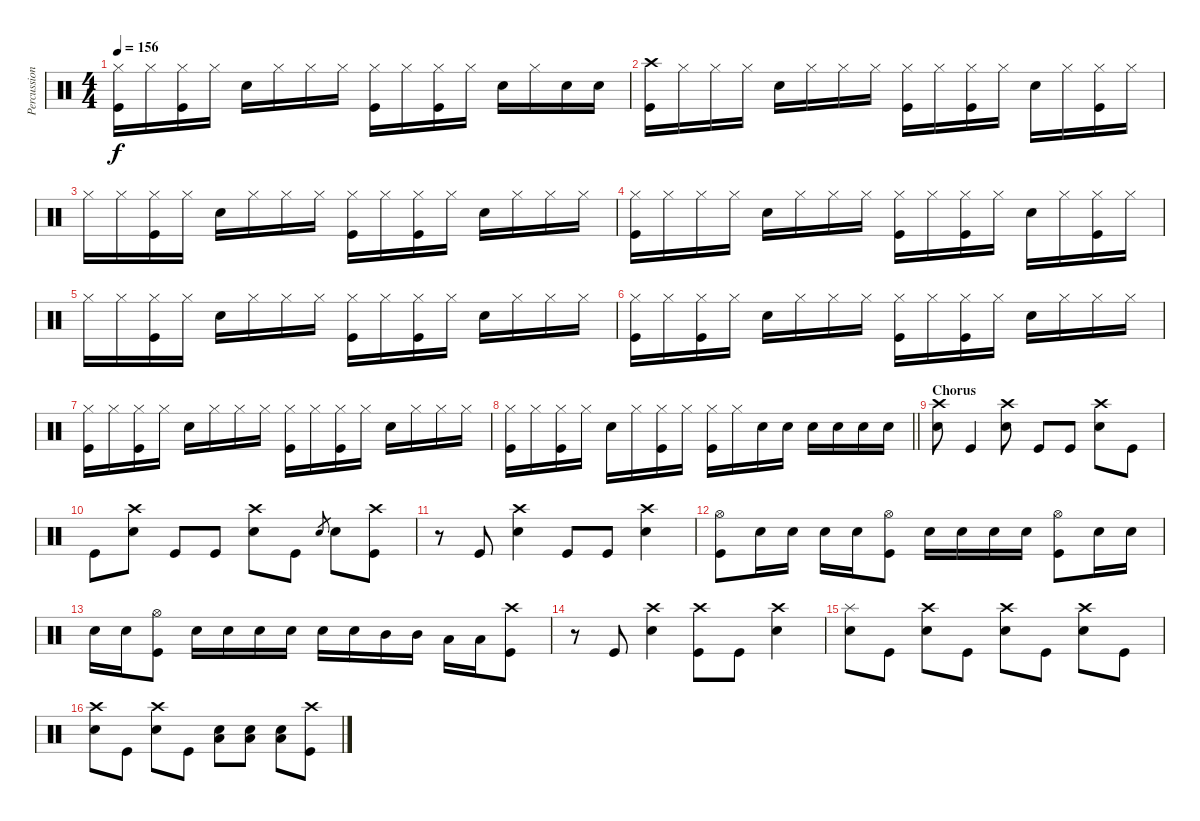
\track ("Percussion" "Percussion") {instrument percussion}
\staff {score}
\articulation defaults
\ts (4 4)
\tempo 156
\clef neutral
\ks c
("Hi-Hat (closed)" "Kick (hit)").16{dy f} "Hi-Hat (closed)".16 ("Hi-Hat (closed)" "Kick (hit)").16 "Hi-Hat (closed)".16 "Snare (hit) 2".16 "Hi-Hat (closed)".16 "Hi-Hat (closed)".16 "Hi-Hat (closed)".16 ("Hi-Hat (closed)" "Kick (hit)").16 "Hi-Hat (closed)".16 ("Hi-Hat (closed)" "Kick (hit)").16 "Hi-Hat (closed)".16 "Snare (hit) 2".16 "Hi-Hat (closed)".16 "Snare (hit) 2".16 "Snare (hit) 2".16 |
("Crash high (hit)" "Kick (hit)").16 "Hi-Hat (closed)".16 "Hi-Hat (closed)".16 "Hi-Hat (closed)".16 "Snare (hit) 2".16 "Hi-Hat (closed)".16 "Hi-Hat (closed)".16 "Hi-Hat (closed)".16 ("Hi-Hat (closed)" "Kick (hit)").16 "Hi-Hat (closed)".16 ("Hi-Hat (closed)" "Kick (hit)").16 "Hi-Hat (closed)".16 "Snare (hit) 2".16 "Hi-Hat (closed)".16 ("Hi-Hat (closed)" "Kick (hit)").16 "Hi-Hat (closed)".16 |
"Hi-Hat (closed)".16 "Hi-Hat (closed)".16 ("Hi-Hat (closed)" "Kick (hit)").16 "Hi-Hat (closed)".16 "Snare (hit) 2".16 "Hi-Hat (closed)".16 "Hi-Hat (closed)".16 "Hi-Hat (closed)".16 ("Hi-Hat (closed)" "Kick (hit)").16 "Hi-Hat (closed)".16 ("Hi-Hat (closed)" "Kick (hit)").16 "Hi-Hat (closed)".16 "Snare (hit) 2".16 "Hi-Hat (closed)".16 "Hi-Hat (closed)".16 "Hi-Hat (closed)".16 |
("Hi-Hat (closed)" "Kick (hit)").16 "Hi-Hat (closed)".16 "Hi-Hat (closed)".16 "Hi-Hat (closed)".16 "Snare (hit) 2".16 "Hi-Hat (closed)".16 "Hi-Hat (closed)".16 "Hi-Hat (closed)".16 ("Hi-Hat (closed)" "Kick (hit)").16 "Hi-Hat (closed)".16 ("Hi-Hat (closed)" "Kick (hit)").16 "Hi-Hat (closed)".16 "Snare (hit) 2".16 "Hi-Hat (closed)".16 ("Hi-Hat (closed)" "Kick (hit)").16 "Hi-Hat (closed)".16 |
"Hi-Hat (closed)".16 "Hi-Hat (closed)".16 ("Hi-Hat (closed)" "Kick (hit)").16 "Hi-Hat (closed)".16 "Snare (hit) 2".16 "Hi-Hat (closed)".16 "Hi-Hat (closed)".16 "Hi-Hat (closed)".16 ("Hi-Hat (closed)" "Kick (hit)").16 "Hi-Hat (closed)".16 ("Hi-Hat (closed)" "Kick (hit)").16 "Hi-Hat (closed)".16 "Snare (hit) 2".16 "Hi-Hat (closed)".16 "Hi-Hat (closed)".16 "Hi-Hat (closed)".16 |
("Hi-Hat (closed)" "Kick (hit)").16{volume 8} "Hi-Hat (closed)".16{volume 16} ("Hi-Hat (closed)" "Kick (hit)").16 "Hi-Hat (closed)".16 "Snare (hit) 2".16 "Hi-Hat (closed)".16 "Hi-Hat (closed)".16 "Hi-Hat (closed)".16 ("Hi-Hat (closed)" "Kick (hit)").16 "Hi-Hat (closed)".16 ("Hi-Hat (closed)" "Kick (hit)").16 "Hi-Hat (closed)".16 "Snare (hit) 2".16 "Hi-Hat (closed)".16 "Hi-Hat (closed)".16 "Hi-Hat (closed)".16 |
("Hi-Hat (closed)" "Kick (hit)").16 "Hi-Hat (closed)".16 ("Hi-Hat (closed)" "Kick (hit)").16 "Hi-Hat (closed)".16 "Snare (hit) 2".16 "Hi-Hat (closed)".16 "Hi-Hat (closed)".16 "Hi-Hat (closed)".16 ("Hi-Hat (closed)" "Kick (hit)").16 "Hi-Hat (closed)".16 ("Hi-Hat (closed)" "Kick (hit)").16 "Hi-Hat (closed)".16 "Snare (hit) 2".16 "Hi-Hat (closed)".16 "Hi-Hat (closed)".16 "Hi-Hat (closed)".16 |
\barLineRight lightlight
("Hi-Hat (closed)" "Kick (hit)").16 "Hi-Hat (closed)".16 ("Hi-Hat (closed)" "Kick (hit)").16 "Hi-Hat (closed)".16 "Snare (hit) 2".16 "Hi-Hat (closed)".16 ("Hi-Hat (closed)" "Kick (hit)").16 "Hi-Hat (closed)".16 ("Hi-Hat (closed)" "Kick (hit)").16 "Hi-Hat (closed)".16 "Snare (hit) 2".16 "Snare (hit) 2".16 "Snare (hit) 2".16 "Snare (hit) 2".16 "Snare (hit) 2".16 "Snare (hit) 2".16 |
\section ("" "Chorus")
("Crash high (hit)" "Snare (hit) 2").8{volume 16} "Kick (hit)".4 ("Crash high (hit)" "Snare (hit) 2").8 "Kick (hit)".8 "Kick (hit)".8 ("Crash high (hit)" "Snare (hit) 2").8 "Kick (hit)".8 |
"Kick (hit)".8 ("Crash high (hit)" "Snare (hit) 2").8 "Kick (hit)".8 "Kick (hit)".8 ("Crash high (hit)" "Snare (hit) 2").8 "Kick (hit)".8 "Snare (hit) 2".8{gr} "Snare (hit) 2".8 ("Crash high (hit)" "Kick (hit)").8 |
r.8 "Kick (hit)".8 ("Crash high (hit)" "Snare (hit) 2").4 "Kick (hit)".8 "Kick (hit)".8 ("Crash high (hit)" "Snare (hit) 2").4 |
("Hi-Hat (open)" "Kick (hit)").8 "Snare (hit) 2".16 "Snare (hit) 2".16 "Snare (hit) 2".16 "Snare (hit) 2".16 ("Hi-Hat (open)" "Kick (hit)").8 "Snare (hit) 2".16 "Snare (hit) 2".16 "Snare (hit) 2".16 "Snare (hit) 2".16 ("Hi-Hat (open)" "Kick (hit)").8 "Snare (hit) 2".16 "Snare (hit) 2".16 |
"Snare (hit) 2".16 "Snare (hit) 2".16 ("Hi-Hat (open)" "Kick (hit)").8 "Snare (hit) 2".16 "Snare (hit) 2".16 "Snare (hit) 2".16 "Snare (hit) 2".16 "Snare (hit) 2".16 "Snare (hit) 2".16 "Mid Tom (hit)".16 "Mid Tom (hit)".16 "Low Tom (hit)".16 "Low Tom (hit)".16 ("Crash high (hit)" "Kick (hit)").8 |
r.8 "Kick (hit)".8 ("Crash high (hit)" "Snare (hit) 2").4 ("Crash high (hit)" "Kick (hit)").8 "Kick (hit)".8 ("Crash high (hit)" "Snare (hit) 2").4 |
("Splash (hit)" "Snare (hit) 2").8 "Kick (hit)".8 ("Crash high (hit)" "Snare (hit) 2").8 "Kick (hit)".8 ("Crash high (hit)" "Snare (hit) 2").8 "Kick (hit)".8 ("Crash high (hit)" "Snare (hit) 2").8 "Kick (hit)".8 |
("Crash high (hit)" "Snare (hit) 2").8 "Kick (hit)".8 ("Crash high (hit)" "Snare (hit) 2").8 "Kick (hit)".8 ("Snare (hit) 2" "Low Tom (hit)").8 ("Snare (hit) 2" "Low Tom (hit)").8 ("Snare (hit) 2" "Low Tom (hit)").8 ("Crash high (hit)" "Kick (hit)").8
